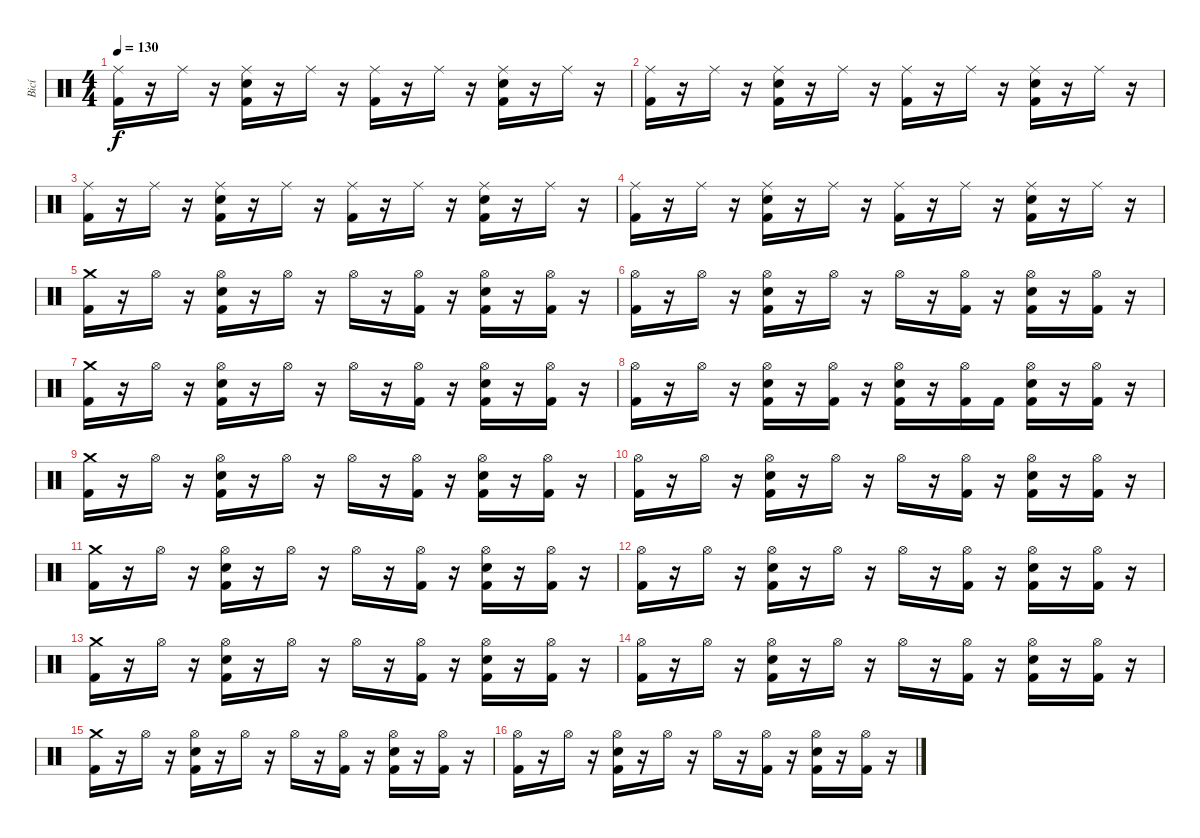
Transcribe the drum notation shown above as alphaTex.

\track ("Bicí" "Bicí") {instrument percussion}
\staff {score}
\articulation defaults
\ts (4 4)
\tempo 130
\clef neutral
\ks c
("Ride (middle)" "Kick (hit) 2").16{dy f} r.16 "Ride (middle)".16 r.16 ("Ride (middle)" "Electric Snare (hit)" "Kick (hit) 2").16 r.16 "Ride (middle)".16 r.16 ("Ride (middle)" "Kick (hit) 2").16 r.16 "Ride (middle)".16 r.16 ("Ride (middle)" "Electric Snare (hit)" "Kick (hit) 2").16 r.16 "Ride (middle)".16 r.16 |
("Ride (middle)" "Kick (hit) 2").16 r.16 "Ride (middle)".16 r.16 ("Ride (middle)" "Electric Snare (hit)" "Kick (hit) 2").16 r.16 "Ride (middle)".16 r.16 ("Ride (middle)" "Kick (hit) 2").16 r.16 "Ride (middle)".16 r.16 ("Ride (middle)" "Electric Snare (hit)" "Kick (hit) 2").16 r.16 "Ride (middle)".16 r.16 |
("Ride (middle)" "Kick (hit) 2").16 r.16 "Ride (middle)".16 r.16 ("Ride (middle)" "Electric Snare (hit)" "Kick (hit) 2").16 r.16 "Ride (middle)".16 r.16 ("Ride (middle)" "Kick (hit) 2").16 r.16 "Ride (middle)".16 r.16 ("Ride (middle)" "Electric Snare (hit)" "Kick (hit) 2").16 r.16 "Ride (middle)".16 r.16 |
("Ride (middle)" "Kick (hit) 2").16 r.16 "Ride (middle)".16 r.16 ("Ride (middle)" "Electric Snare (hit)" "Kick (hit) 2").16 r.16 "Ride (middle)".16 r.16 ("Ride (middle)" "Kick (hit) 2").16 r.16 "Ride (middle)".16 r.16 ("Ride (middle)" "Electric Snare (hit)" "Kick (hit) 2").16 r.16 "Ride (middle)".16 r.16 |
("Crash medium (hit)" "Kick (hit) 2").16 r.16 "Hi-Hat (open)".16 r.16 ("Hi-Hat (open)" "Electric Snare (hit)" "Kick (hit) 2").16 r.16 "Hi-Hat (open)".16 r.16 "Hi-Hat (open)".16 r.16 ("Hi-Hat (open)" "Kick (hit) 2").16 r.16 ("Hi-Hat (open)" "Electric Snare (hit)" "Kick (hit) 2").16 r.16 ("Hi-Hat (open)" "Kick (hit) 2").16 r.16 |
("Hi-Hat (open)" "Kick (hit) 2").16 r.16 "Hi-Hat (open)".16 r.16 ("Hi-Hat (open)" "Electric Snare (hit)" "Kick (hit) 2").16 r.16 "Hi-Hat (open)".16 r.16 "Hi-Hat (open)".16 r.16 ("Hi-Hat (open)" "Kick (hit) 2").16 r.16 ("Hi-Hat (open)" "Electric Snare (hit)" "Kick (hit) 2").16 r.16 ("Hi-Hat (open)" "Kick (hit) 2").16 r.16 |
("Crash medium (hit)" "Kick (hit) 2").16 r.16 "Hi-Hat (open)".16 r.16 ("Hi-Hat (open)" "Electric Snare (hit)" "Kick (hit) 2").16 r.16 "Hi-Hat (open)".16 r.16 "Hi-Hat (open)".16 r.16 ("Hi-Hat (open)" "Kick (hit) 2").16 r.16 ("Hi-Hat (open)" "Electric Snare (hit)" "Kick (hit) 2").16 r.16 ("Hi-Hat (open)" "Kick (hit) 2").16 r.16 |
("Hi-Hat (open)" "Kick (hit) 2").16 r.16 "Hi-Hat (open)".16 r.16 ("Hi-Hat (open)" "Electric Snare (hit)" "Kick (hit) 2").16 r.16 ("Hi-Hat (open)" "Kick (hit) 2").16 r.16 ("Hi-Hat (open)" "Electric Snare (hit)" "Kick (hit) 2").16 r.16 ("Hi-Hat (open)" "Kick (hit) 2").16 "Kick (hit) 2".16 ("Hi-Hat (open)" "Electric Snare (hit)" "Kick (hit) 2").16 r.16 ("Hi-Hat (open)" "Kick (hit) 2").16 r.16 |
("Crash medium (hit)" "Kick (hit) 2").16 r.16 "Hi-Hat (open)".16 r.16 ("Hi-Hat (open)" "Electric Snare (hit)" "Kick (hit) 2").16 r.16 "Hi-Hat (open)".16 r.16 "Hi-Hat (open)".16 r.16 ("Hi-Hat (open)" "Kick (hit) 2").16 r.16 ("Hi-Hat (open)" "Electric Snare (hit)" "Kick (hit) 2").16 r.16 ("Hi-Hat (open)" "Kick (hit) 2").16 r.16 |
("Hi-Hat (open)" "Kick (hit) 2").16 r.16 "Hi-Hat (open)".16 r.16 ("Hi-Hat (open)" "Electric Snare (hit)" "Kick (hit) 2").16 r.16 "Hi-Hat (open)".16 r.16 "Hi-Hat (open)".16 r.16 ("Hi-Hat (open)" "Kick (hit) 2").16 r.16 ("Hi-Hat (open)" "Electric Snare (hit)" "Kick (hit) 2").16 r.16 ("Hi-Hat (open)" "Kick (hit) 2").16 r.16 |
("Crash medium (hit)" "Kick (hit) 2").16 r.16 "Hi-Hat (open)".16 r.16 ("Hi-Hat (open)" "Electric Snare (hit)" "Kick (hit) 2").16 r.16 "Hi-Hat (open)".16 r.16 "Hi-Hat (open)".16 r.16 ("Hi-Hat (open)" "Kick (hit) 2").16 r.16 ("Hi-Hat (open)" "Electric Snare (hit)" "Kick (hit) 2").16 r.16 ("Hi-Hat (open)" "Kick (hit) 2").16 r.16 |
("Hi-Hat (open)" "Kick (hit) 2").16 r.16 "Hi-Hat (open)".16 r.16 ("Hi-Hat (open)" "Electric Snare (hit)" "Kick (hit) 2").16 r.16 "Hi-Hat (open)".16 r.16 "Hi-Hat (open)".16 r.16 ("Hi-Hat (open)" "Kick (hit) 2").16 r.16 ("Hi-Hat (open)" "Electric Snare (hit)" "Kick (hit) 2").16 r.16 ("Hi-Hat (open)" "Kick (hit) 2").16 r.16 |
("Crash medium (hit)" "Kick (hit) 2").16 r.16 "Hi-Hat (open)".16 r.16 ("Hi-Hat (open)" "Electric Snare (hit)" "Kick (hit) 2").16 r.16 "Hi-Hat (open)".16 r.16 "Hi-Hat (open)".16 r.16 ("Hi-Hat (open)" "Kick (hit) 2").16 r.16 ("Hi-Hat (open)" "Electric Snare (hit)" "Kick (hit) 2").16 r.16 ("Hi-Hat (open)" "Kick (hit) 2").16 r.16 |
("Hi-Hat (open)" "Kick (hit) 2").16 r.16 "Hi-Hat (open)".16 r.16 ("Hi-Hat (open)" "Electric Snare (hit)" "Kick (hit) 2").16 r.16 "Hi-Hat (open)".16 r.16 "Hi-Hat (open)".16 r.16 ("Hi-Hat (open)" "Kick (hit) 2").16 r.16 ("Hi-Hat (open)" "Electric Snare (hit)" "Kick (hit) 2").16 r.16 ("Hi-Hat (open)" "Kick (hit) 2").16 r.16 |
("Crash medium (hit)" "Kick (hit) 2").16 r.16 "Hi-Hat (open)".16 r.16 ("Hi-Hat (open)" "Electric Snare (hit)" "Kick (hit) 2").16 r.16 "Hi-Hat (open)".16 r.16 "Hi-Hat (open)".16 r.16 ("Hi-Hat (open)" "Kick (hit) 2").16 r.16 ("Hi-Hat (open)" "Electric Snare (hit)" "Kick (hit) 2").16 r.16 ("Hi-Hat (open)" "Kick (hit) 2").16 r.16 |
("Hi-Hat (open)" "Kick (hit) 2").16 r.16 "Hi-Hat (open)".16 r.16 ("Hi-Hat (open)" "Electric Snare (hit)" "Kick (hit) 2").16 r.16 "Hi-Hat (open)".16 r.16 "Hi-Hat (open)".16 r.16 ("Hi-Hat (open)" "Kick (hit) 2").16 r.16 ("Hi-Hat (open)" "Electric Snare (hit)" "Kick (hit) 2").16 r.16 ("Hi-Hat (open)" "Kick (hit) 2").16 r.16
